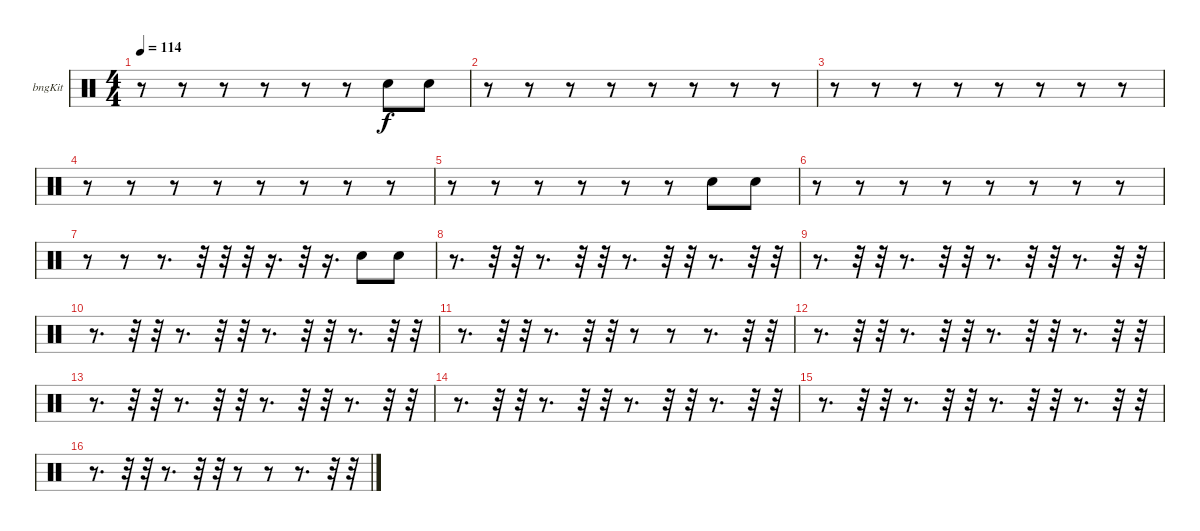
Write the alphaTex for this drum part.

\bracketExtendMode groupsimilarinstruments
\firstSystemTrackNameOrientation horizontal
\otherSystemsTrackNameOrientation horizontal
\track ("Bongos" "bngKit") {instrument percussion}
\staff {score}
\articulation defaults
\ts (4 4)
\tempo 114
\clef neutral
\ks c
r.8{dy f} r.8 r.8 r.8 r.8 r.8 "Snare (hit) 2".8 "Snare (hit) 2".8 |
r.8 r.8 r.8 r.8 r.8 r.8 r.8 r.8 |
r.8 r.8 r.8 r.8 r.8 r.8 r.8 r.8 |
r.8 r.8 r.8 r.8 r.8 r.8 r.8 r.8 |
r.8 r.8 r.8 r.8 r.8 r.8 "Snare (hit) 2".8 "Snare (hit) 2".8 |
r.8 r.8 r.8 r.8 r.8 r.8 r.8 r.8 |
r.8 r.8 r.8{d} r.32 r.32 r.32 r.16{d} r.32 r.16{d} "Snare (hit) 2".8 "Snare (hit) 2".8 |
r.8{d} r.32 r.32 r.8{d} r.32 r.32 r.8{d} r.32 r.32 r.8{d} r.32 r.32 |
r.8{d} r.32 r.32 r.8{d} r.32 r.32 r.8{d} r.32 r.32 r.8{d} r.32 r.32 |
r.8{d} r.32 r.32 r.8{d} r.32 r.32 r.8{d} r.32 r.32 r.8{d} r.32 r.32 |
r.8{d} r.32 r.32 r.8{d} r.32 r.32 r.8 r.8 r.8{d} r.32 r.32 |
r.8{d} r.32 r.32 r.8{d} r.32 r.32 r.8{d} r.32 r.32 r.8{d} r.32 r.32 |
r.8{d} r.32 r.32 r.8{d} r.32 r.32 r.8{d} r.32 r.32 r.8{d} r.32 r.32 |
r.8{d} r.32 r.32 r.8{d} r.32 r.32 r.8{d} r.32 r.32 r.8{d} r.32 r.32 |
r.8{d} r.32 r.32 r.8{d} r.32 r.32 r.8{d} r.32 r.32 r.8{d} r.32 r.32 |
r.8{d} r.32 r.32 r.8{d} r.32 r.32 r.8 r.8 r.8{d} r.32 r.32
